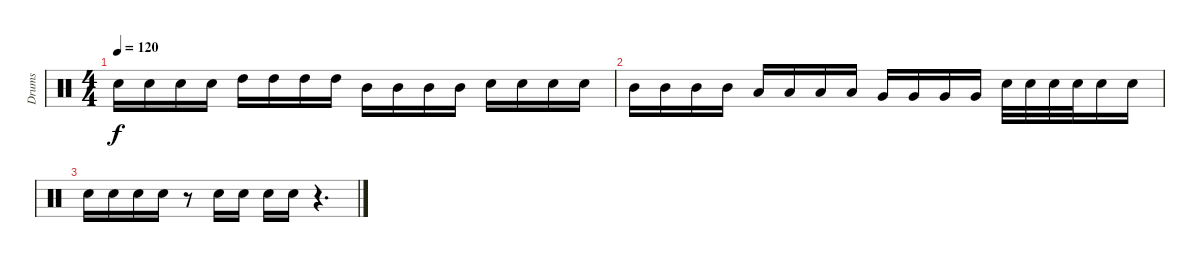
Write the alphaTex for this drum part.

\track ("Drums" "Drums") {instrument percussion}
\staff {score}
\articulation defaults
\ts (4 4)
\tempo 120
\clef neutral
\ks c "Electric Snare (hit)".16{dy f} "Electric Snare (hit)".16 "Electric Snare (hit)".16 "Electric Snare (hit)".16 "High Tom (hit)".16 "High Tom (hit)".16 "High Tom (hit)".16 "High Tom (hit)".16 "Mid Tom (hit)".16 "Mid Tom (hit)".16 "Mid Tom (hit)".16 "Mid Tom (hit)".16 "Electric Snare (hit)".16 "Electric Snare (hit)".16 "Electric Snare (hit)".16 "Electric Snare (hit)".16
|
"Mid Tom (hit)".16 "Mid Tom (hit)".16 "Mid Tom (hit)".16 "Mid Tom (hit)".16 "Low Tom (hit)".16 "Low Tom (hit)".16 "Low Tom (hit)".16 "Low Tom (hit)".16 "Very Low Tom (hit)".16 "Very Low Tom (hit)".16 "Very Low Tom (hit)".16 "Very Low Tom (hit)".16 "Electric Snare (hit)".32 "Electric Snare (hit)".32 "Electric Snare (hit)".32 "Electric Snare (hit)".32 "Electric Snare (hit)".16 "Electric Snare (hit)".16 |
"Electric Snare (hit)".16 "Electric Snare (hit)".16 "Electric Snare (hit)".16 "Electric Snare (hit)".16 r.8 "Electric Snare (hit)".16 "Electric Snare (hit)".16 "Electric Snare (hit)".16 "Electric Snare (hit)".16 r.4{d}
